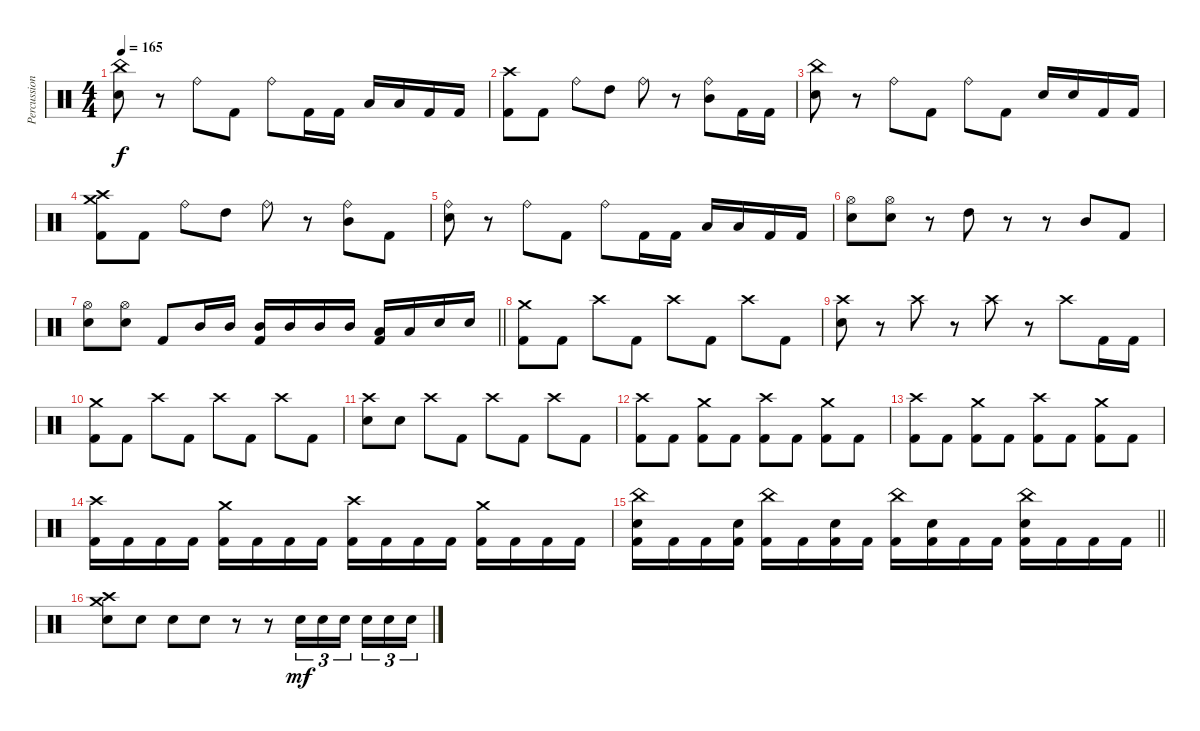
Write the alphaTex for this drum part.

\track ("Percussion" "Percussion") {instrument percussion}
\staff {score}
\articulation defaults
\ts (4 4)
\tempo 165
\clef neutral
\ks c
("China (hit)" "Snare (hit) 2").8{dy f} r.8 "Ride (bell)".8 "Kick (hit) 2".8 "Ride (bell)".8 "Kick (hit) 2".16 "Kick (hit) 2".16 "Low Tom (hit)".16 "Low Tom (hit)".16 "Kick (hit) 2".16 "Kick (hit) 2".16 |
("Crash high (hit)" "Kick (hit) 2").8 "Kick (hit) 2".8 "Ride (bell)".8 "High Tom (hit)".8 "Ride (bell)".8 r.8 ("Ride (bell)" "Mid Tom (hit)").8 "Kick (hit) 2".16 "Kick (hit) 2".16 |
("China (hit)" "Snare (hit) 2").8 r.8 "Ride (bell)".8 "Kick (hit) 2".8 "Ride (bell)".8 "Kick (hit) 2".8 "Snare (hit) 2".16 "Snare (hit) 2".16 "Kick (hit) 2".16 "Kick (hit) 2".16 |
("Crash high (hit)" "Crash medium (hit)" "Kick (hit) 2").8 "Kick (hit) 2".8 "Ride (bell)".8 "High Tom (hit)".8 "Ride (bell)".8 r.8 ("Ride (bell)" "Mid Tom (hit)").8 "Kick (hit) 2".8 |
("Ride (bell)" "Snare (hit) 2").8 r.8 "Ride (bell)".8 "Kick (hit) 2".8 "Ride (bell)".8 "Kick (hit) 2".16 "Kick (hit) 2".16 "Low Tom (hit)".16 "Low Tom (hit)".16 "Kick (hit) 2".16 "Kick (hit) 2".16 |
("Hi-Hat (open)" "Snare (hit) 2").8 ("Hi-Hat (open)" "Snare (hit) 2").8 r.8 "High Tom (hit)".8 r.8 r.8 "Mid Tom (hit)".8 "Kick (hit) 2".8 |
\barLineRight lightlight
("Hi-Hat (open)" "Snare (hit) 2").8 ("Hi-Hat (open)" "Snare (hit) 2").8 "Kick (hit) 2".8 "Mid Tom (hit)".16 "Mid Tom (hit)".16 ("Mid Tom (hit)" "Kick (hit) 2").16 "Mid Tom (hit)".16 "Mid Tom (hit)".16 "Mid Tom (hit)".16 ("Low Tom (hit)" "Kick (hit) 2").16 "Low Tom (hit)".16 "Snare (hit) 2".16 "Snare (hit) 2".16 |
\section ("" "")
("Crash medium (hit)" "Kick (hit) 2").8 "Kick (hit) 2".8 "Crash high (hit)".8 "Kick (hit) 2".8 "Crash high (hit)".8 "Kick (hit) 2".8 "Crash high (hit)".8 "Kick (hit) 2".8 |
("Crash high (hit)" "Snare (hit) 2").8 r.8 "Crash high (hit)".8 r.8 "Crash high (hit)".8 r.8 "Crash high (hit)".8 "Kick (hit) 2".16 "Kick (hit) 2".16 |
("Crash medium (hit)" "Kick (hit) 2").8 "Kick (hit) 2".8 "Crash high (hit)".8 "Kick (hit) 2".8 "Crash high (hit)".8 "Kick (hit) 2".8 "Crash high (hit)".8 "Kick (hit) 2".8 |
("Crash high (hit)" "Snare (hit) 2").8 "Snare (hit) 2".8 "Crash high (hit)".8 "Kick (hit) 2".8 "Crash high (hit)".8 "Kick (hit) 2".8 "Crash high (hit)".8 "Kick (hit) 2".8 |
("Crash high (hit)" "Kick (hit) 2").8 "Kick (hit) 2".8 ("Crash medium (hit)" "Kick (hit) 2").8 "Kick (hit) 2".8 ("Crash high (hit)" "Kick (hit) 2").8 "Kick (hit) 2".8 ("Crash medium (hit)" "Kick (hit) 2").8 "Kick (hit) 2".8 |
("Crash high (hit)" "Kick (hit) 2").8 "Kick (hit) 2".8 ("Crash medium (hit)" "Kick (hit) 2").8 "Kick (hit) 2".8 ("Crash high (hit)" "Kick (hit) 2").8 "Kick (hit) 2".8 ("Crash medium (hit)" "Kick (hit) 2").8 "Kick (hit) 2".8 |
("Crash high (hit)" "Kick (hit) 2").16 "Kick (hit) 2".16 "Kick (hit) 2".16 "Kick (hit) 2".16 ("Crash medium (hit)" "Kick (hit) 2").16 "Kick (hit) 2".16 "Kick (hit) 2".16 "Kick (hit) 2".16 ("Crash high (hit)" "Kick (hit) 2").16 "Kick (hit) 2".16 "Kick (hit) 2".16 "Kick (hit) 2".16 ("Crash medium (hit)" "Kick (hit) 2").16 "Kick (hit) 2".16 "Kick (hit) 2".16 "Kick (hit) 2".16 |
\barLineRight lightlight
("China (hit)" "Snare (hit) 2" "Kick (hit) 2").16 "Kick (hit) 2".16 "Kick (hit) 2".16 ("Snare (hit) 2" "Kick (hit) 2").16 ("China (hit)" "Kick (hit) 2").16 "Kick (hit) 2".16 ("Snare (hit) 2" "Kick (hit) 2").16 "Kick (hit) 2".16 ("China (hit)" "Kick (hit) 2").16 ("Snare (hit) 2" "Kick (hit) 2").16 "Kick (hit) 2".16 "Kick (hit) 2".16 ("China (hit)" "Snare (hit) 2" "Kick (hit) 2").16 "Kick (hit) 2".16 "Kick (hit) 2".16 "Kick (hit) 2".16 |
\section ("" "")
("Crash high (hit)" "Crash medium (hit)" "Snare (hit) 2").8 "Snare (hit) 2".8 "Snare (hit) 2".8 "Snare (hit) 2".8 r.8 r.8 "Snare (hit) 2".16{tu (3 2) dy mf} "Snare (hit) 2".16{tu (3 2)} "Snare (hit) 2".16{tu (3 2) beam splitsecondary} "Snare (hit) 2".16{tu (3 2)} "Snare (hit) 2".16{tu (3 2)} "Snare (hit) 2".16{tu (3 2)}
